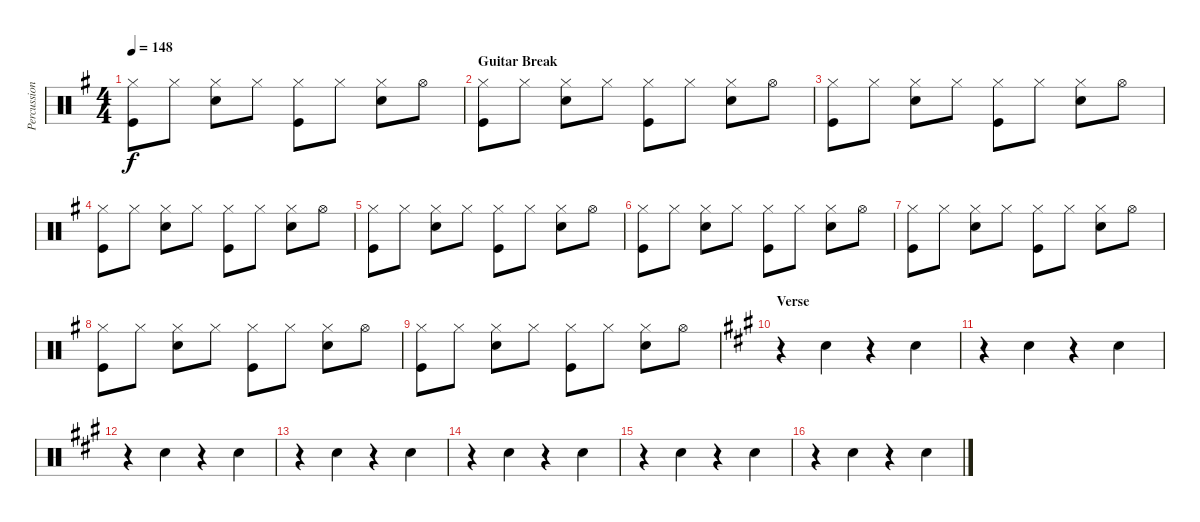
\track ("Percussion" "Percussion") {instrument percussion}
\staff {score}
\articulation defaults
\ts (4 4)
\tempo 148
\clef neutral
\ks g
("Hi-Hat (closed)" "Kick (hit)").8{dy f} "Hi-Hat (closed)".8 ("Hi-Hat (closed)" "Snare (hit) 2").8 "Hi-Hat (closed)".8 ("Hi-Hat (closed)" "Kick (hit)").8 "Hi-Hat (closed)".8 ("Hi-Hat (closed)" "Snare (hit) 2").8 "Hi-Hat (open)".8 |
\section ("" "Guitar Break")
("Hi-Hat (closed)" "Kick (hit)").8 "Hi-Hat (closed)".8 ("Hi-Hat (closed)" "Snare (hit) 2").8 "Hi-Hat (closed)".8 ("Hi-Hat (closed)" "Kick (hit)").8 "Hi-Hat (closed)".8 ("Hi-Hat (closed)" "Snare (hit) 2").8 "Hi-Hat (open)".8 |
("Hi-Hat (closed)" "Kick (hit)").8 "Hi-Hat (closed)".8 ("Hi-Hat (closed)" "Snare (hit) 2").8 "Hi-Hat (closed)".8 ("Hi-Hat (closed)" "Kick (hit)").8 "Hi-Hat (closed)".8 ("Hi-Hat (closed)" "Snare (hit) 2").8 "Hi-Hat (open)".8 |
("Hi-Hat (closed)" "Kick (hit)").8 "Hi-Hat (closed)".8 ("Hi-Hat (closed)" "Snare (hit) 2").8 "Hi-Hat (closed)".8 ("Hi-Hat (closed)" "Kick (hit)").8 "Hi-Hat (closed)".8 ("Hi-Hat (closed)" "Snare (hit) 2").8 "Hi-Hat (open)".8 |
("Hi-Hat (closed)" "Kick (hit)").8 "Hi-Hat (closed)".8 ("Hi-Hat (closed)" "Snare (hit) 2").8 "Hi-Hat (closed)".8 ("Hi-Hat (closed)" "Kick (hit)").8 "Hi-Hat (closed)".8 ("Hi-Hat (closed)" "Snare (hit) 2").8 "Hi-Hat (open)".8 |
("Hi-Hat (closed)" "Kick (hit)").8 "Hi-Hat (closed)".8 ("Hi-Hat (closed)" "Snare (hit) 2").8 "Hi-Hat (closed)".8 ("Hi-Hat (closed)" "Kick (hit)").8 "Hi-Hat (closed)".8 ("Hi-Hat (closed)" "Snare (hit) 2").8 "Hi-Hat (open)".8 |
("Hi-Hat (closed)" "Kick (hit)").8 "Hi-Hat (closed)".8 ("Hi-Hat (closed)" "Snare (hit) 2").8 "Hi-Hat (closed)".8 ("Hi-Hat (closed)" "Kick (hit)").8 "Hi-Hat (closed)".8 ("Hi-Hat (closed)" "Snare (hit) 2").8 "Hi-Hat (open)".8 |
("Hi-Hat (closed)" "Kick (hit)").8 "Hi-Hat (closed)".8 ("Hi-Hat (closed)" "Snare (hit) 2").8 "Hi-Hat (closed)".8 ("Hi-Hat (closed)" "Kick (hit)").8 "Hi-Hat (closed)".8 ("Hi-Hat (closed)" "Snare (hit) 2").8 "Hi-Hat (open)".8 |
("Hi-Hat (closed)" "Kick (hit)").8 "Hi-Hat (closed)".8 ("Hi-Hat (closed)" "Snare (hit) 2").8 "Hi-Hat (closed)".8 ("Hi-Hat (closed)" "Kick (hit)").8 "Hi-Hat (closed)".8 ("Hi-Hat (closed)" "Snare (hit) 2").8 "Hi-Hat (open)".8 |
\section ("" "Verse")
\ks a
r.4 "Hand Clap (hit)".4 r.4 "Hand Clap (hit)".4 |
r.4 "Hand Clap (hit)".4 r.4 "Hand Clap (hit)".4 |
r.4 "Hand Clap (hit)".4 r.4 "Hand Clap (hit)".4 |
r.4 "Hand Clap (hit)".4 r.4 "Hand Clap (hit)".4 |
r.4 "Hand Clap (hit)".4 r.4 "Hand Clap (hit)".4 |
r.4 "Hand Clap (hit)".4 r.4 "Hand Clap (hit)".4 |
r.4 "Hand Clap (hit)".4 r.4 "Hand Clap (hit)".4
